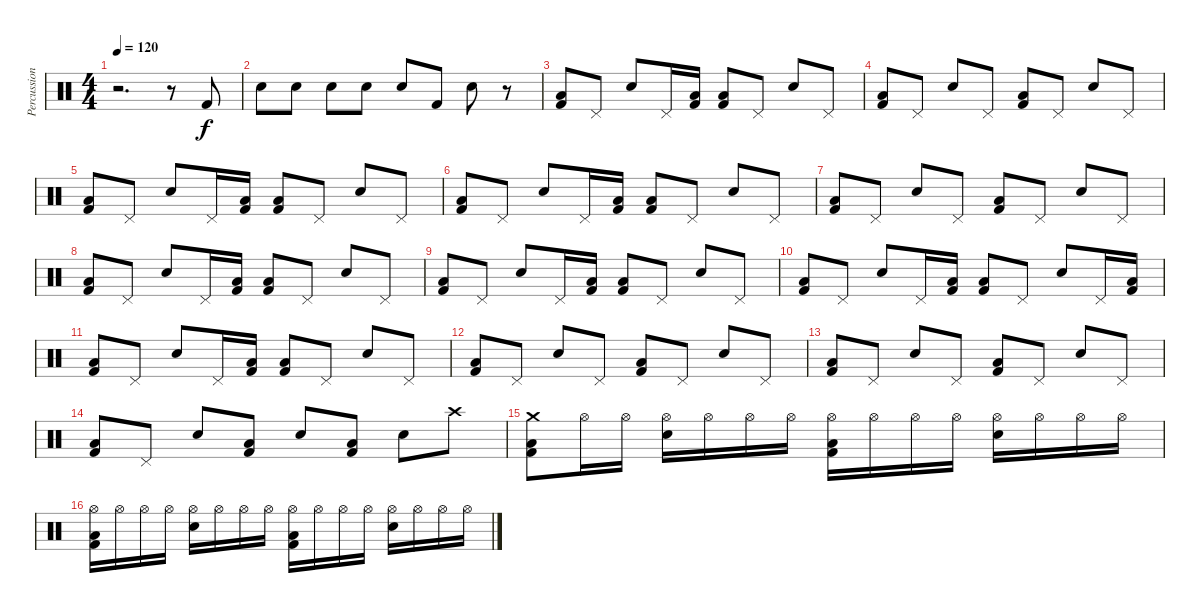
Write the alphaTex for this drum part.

\track ("Percussions" "Percussion") {instrument percussion}
\staff {score}
\articulation defaults
\ts (4 4)
\tempo 120
\clef neutral
\ks c
r.2{d dy f} r.8 "Kick (hit) 2".8 |
"Snare (hit) 2".8 "Snare (hit) 2".8 "Snare (hit) 2".8 "Snare (hit) 2".8 "Snare (hit) 2".8 "Kick (hit) 2".8 "Snare (hit) 2".8 r.8 |
("Kick (hit) 2" "Low Floor Tom (hit)").8 "Pedal Hi-Hat (hit)".8 "Snare (hit) 2".8 "Pedal Hi-Hat (hit)".16 ("Kick (hit) 2" "Low Floor Tom (hit)").16 ("Kick (hit) 2" "Low Floor Tom (hit)").8 "Pedal Hi-Hat (hit)".8 "Snare (hit) 2".8 "Pedal Hi-Hat (hit)".8 |
("Kick (hit) 2" "Low Floor Tom (hit)").8 "Pedal Hi-Hat (hit)".8 "Snare (hit) 2".8 "Pedal Hi-Hat (hit)".8 ("Kick (hit) 2" "Low Floor Tom (hit)").8 "Pedal Hi-Hat (hit)".8 "Snare (hit) 2".8 "Pedal Hi-Hat (hit)".8 |
("Kick (hit) 2" "Low Floor Tom (hit)").8 "Pedal Hi-Hat (hit)".8 "Snare (hit) 2".8 "Pedal Hi-Hat (hit)".16 ("Kick (hit) 2" "Low Floor Tom (hit)").16 ("Kick (hit) 2" "Low Floor Tom (hit)").8 "Pedal Hi-Hat (hit)".8 "Snare (hit) 2".8 "Pedal Hi-Hat (hit)".8 |
("Kick (hit) 2" "Low Floor Tom (hit)").8 "Pedal Hi-Hat (hit)".8 "Snare (hit) 2".8 "Pedal Hi-Hat (hit)".16 ("Kick (hit) 2" "Low Floor Tom (hit)").16 ("Kick (hit) 2" "Low Floor Tom (hit)").8 "Pedal Hi-Hat (hit)".8 "Snare (hit) 2".8 "Pedal Hi-Hat (hit)".8 |
("Kick (hit) 2" "Low Floor Tom (hit)").8 "Pedal Hi-Hat (hit)".8 "Snare (hit) 2".8 "Pedal Hi-Hat (hit)".8 ("Kick (hit) 2" "Low Floor Tom (hit)").8 "Pedal Hi-Hat (hit)".8 "Snare (hit) 2".8 "Pedal Hi-Hat (hit)".8 |
("Kick (hit) 2" "Low Floor Tom (hit)").8 "Pedal Hi-Hat (hit)".8 "Snare (hit) 2".8 "Pedal Hi-Hat (hit)".16 ("Kick (hit) 2" "Low Floor Tom (hit)").16 ("Kick (hit) 2" "Low Floor Tom (hit)").8 "Pedal Hi-Hat (hit)".8 "Snare (hit) 2".8 "Pedal Hi-Hat (hit)".8 |
("Kick (hit) 2" "Low Floor Tom (hit)").8 "Pedal Hi-Hat (hit)".8 "Snare (hit) 2".8 "Pedal Hi-Hat (hit)".16 ("Kick (hit) 2" "Low Floor Tom (hit)").16 ("Kick (hit) 2" "Low Floor Tom (hit)").8 "Pedal Hi-Hat (hit)".8 "Snare (hit) 2".8 "Pedal Hi-Hat (hit)".8 |
("Kick (hit) 2" "Low Floor Tom (hit)").8 "Pedal Hi-Hat (hit)".8 "Snare (hit) 2".8 "Pedal Hi-Hat (hit)".16 ("Kick (hit) 2" "Low Floor Tom (hit)").16 ("Kick (hit) 2" "Low Floor Tom (hit)").8 "Pedal Hi-Hat (hit)".8 "Snare (hit) 2".8 "Pedal Hi-Hat (hit)".16 ("Kick (hit) 2" "Low Floor Tom (hit)").16 |
("Kick (hit) 2" "Low Floor Tom (hit)").8 "Pedal Hi-Hat (hit)".8 "Snare (hit) 2".8 "Pedal Hi-Hat (hit)".16 ("Kick (hit) 2" "Low Floor Tom (hit)").16 ("Kick (hit) 2" "Low Floor Tom (hit)").8 "Pedal Hi-Hat (hit)".8 "Snare (hit) 2".8 "Pedal Hi-Hat (hit)".8 |
("Kick (hit) 2" "Low Floor Tom (hit)").8 "Pedal Hi-Hat (hit)".8 "Snare (hit) 2".8 "Pedal Hi-Hat (hit)".8 ("Kick (hit) 2" "Low Floor Tom (hit)").8 "Pedal Hi-Hat (hit)".8 "Snare (hit) 2".8 "Pedal Hi-Hat (hit)".8 |
("Kick (hit) 2" "Low Floor Tom (hit)").8 "Pedal Hi-Hat (hit)".8 "Snare (hit) 2".8 "Pedal Hi-Hat (hit)".8 ("Kick (hit) 2" "Low Floor Tom (hit)").8 "Pedal Hi-Hat (hit)".8 "Snare (hit) 2".8 "Pedal Hi-Hat (hit)".8 |
("Kick (hit) 2" "Low Floor Tom (hit)").8 "Pedal Hi-Hat (hit)".8 "Snare (hit) 2".8 ("Kick (hit) 2" "Low Floor Tom (hit)").8 "Snare (hit) 2".8 ("Kick (hit) 2" "Low Floor Tom (hit)").8 "Snare (hit) 2".8 "Crash high (hit)".8 |
("Crash medium (hit)" "Kick (hit) 2" "Low Floor Tom (hit)").8 "Hi-Hat (open)".16 "Hi-Hat (open)".16 ("Hi-Hat (open)" "Snare (hit) 2").16 "Hi-Hat (open)".16 "Hi-Hat (open)".16 "Hi-Hat (open)".16 ("Hi-Hat (open)" "Kick (hit) 2" "Low Floor Tom (hit)").16 "Hi-Hat (open)".16 "Hi-Hat (open)".16 "Hi-Hat (open)".16 ("Hi-Hat (open)" "Snare (hit) 2").16 "Hi-Hat (open)".16 "Hi-Hat (open)".16 "Hi-Hat (open)".16 |
("Hi-Hat (open)" "Kick (hit) 2" "Low Floor Tom (hit)").16 "Hi-Hat (open)".16 "Hi-Hat (open)".16 "Hi-Hat (open)".16 ("Hi-Hat (open)" "Snare (hit) 2").16 "Hi-Hat (open)".16 "Hi-Hat (open)".16 "Hi-Hat (open)".16 ("Hi-Hat (open)" "Kick (hit) 2" "Low Floor Tom (hit)").16 "Hi-Hat (open)".16 "Hi-Hat (open)".16 "Hi-Hat (open)".16 ("Hi-Hat (open)" "Snare (hit) 2").16 "Hi-Hat (open)".16 "Hi-Hat (open)".16 "Hi-Hat (open)".16
